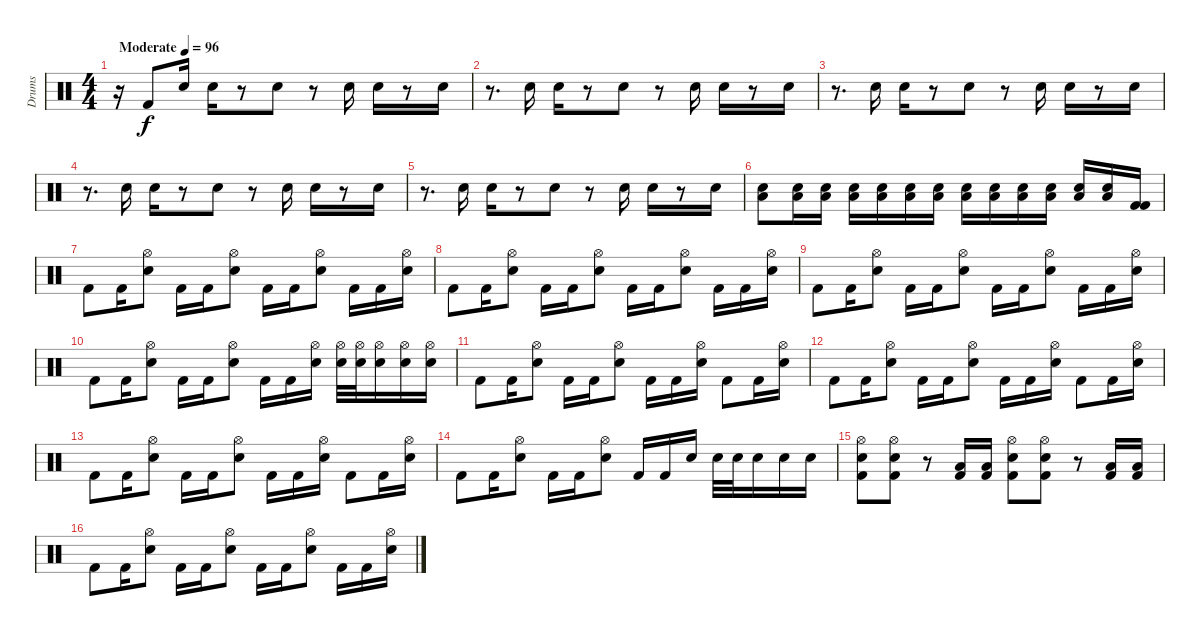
\track ("Drums" "Drums") {instrument percussion}
\staff {score}
\articulation defaults
\ts (4 4)
\tempo (96 "Moderate")
\clef neutral
\ks c
r.16{dy f} "Kick (hit) 2".8 "Snare (hit) 2".16 "Snare (hit) 2".16 r.8 "Snare (hit) 2".8 r.8 "Snare (hit) 2".16 "Snare (hit) 2".16 r.8 "Snare (hit) 2".16 |
r.8{d} "Snare (hit) 2".16 "Snare (hit) 2".16 r.8 "Snare (hit) 2".8 r.8 "Snare (hit) 2".16 "Snare (hit) 2".16 r.8 "Snare (hit) 2".16 |
r.8{d} "Snare (hit) 2".16 "Snare (hit) 2".16 r.8 "Snare (hit) 2".8 r.8 "Snare (hit) 2".16 "Snare (hit) 2".16 r.8 "Snare (hit) 2".16 |
r.8{d} "Snare (hit) 2".16 "Snare (hit) 2".16 r.8 "Snare (hit) 2".8 r.8 "Snare (hit) 2".16 "Snare (hit) 2".16 r.8 "Snare (hit) 2".16 |
r.8{d} "Snare (hit) 2".16 "Snare (hit) 2".16 r.8 "Snare (hit) 2".8 r.8 "Snare (hit) 2".16 "Snare (hit) 2".16 r.8 "Snare (hit) 2".16 |
("Low Tom (hit)" "Snare (hit) 2").8 ("Low Tom (hit)" "Snare (hit) 2").16 ("Low Tom (hit)" "Snare (hit) 2").16 ("Low Tom (hit)" "Snare (hit) 2").16 ("Low Tom (hit)" "Snare (hit) 2").16 ("Low Tom (hit)" "Snare (hit) 2").16 ("Low Tom (hit)" "Snare (hit) 2").16 ("Low Tom (hit)" "Snare (hit) 2").16 ("Low Tom (hit)" "Snare (hit) 2").16 ("Low Tom (hit)" "Snare (hit) 2").16 ("Low Tom (hit)" "Snare (hit) 2").16 ("Low Tom (hit)" "Snare (hit) 2").16 ("Low Tom (hit)" "Snare (hit) 2").16 ("Kick (hit) 2" "Kick (hit) 2").16 |
"Kick (hit) 2".8 "Kick (hit) 2".16 ("Snare (hit) 2" "Hi-Hat (open)").8 "Kick (hit) 2".16 "Kick (hit) 2".16 ("Snare (hit) 2" "Hi-Hat (open)").8 "Kick (hit) 2".16 "Kick (hit) 2".16 ("Snare (hit) 2" "Hi-Hat (open)").8 "Kick (hit) 2".16 "Kick (hit) 2".16 ("Snare (hit) 2" "Hi-Hat (open)").16 |
"Kick (hit) 2".8 "Kick (hit) 2".16 ("Snare (hit) 2" "Hi-Hat (open)").8 "Kick (hit) 2".16 "Kick (hit) 2".16 ("Snare (hit) 2" "Hi-Hat (open)").8 "Kick (hit) 2".16 "Kick (hit) 2".16 ("Snare (hit) 2" "Hi-Hat (open)").8 "Kick (hit) 2".16 "Kick (hit) 2".16 ("Snare (hit) 2" "Hi-Hat (open)").16 |
"Kick (hit) 2".8 "Kick (hit) 2".16 ("Snare (hit) 2" "Hi-Hat (open)").8 "Kick (hit) 2".16 "Kick (hit) 2".16 ("Snare (hit) 2" "Hi-Hat (open)").8 "Kick (hit) 2".16 "Kick (hit) 2".16 ("Snare (hit) 2" "Hi-Hat (open)").8 "Kick (hit) 2".16 "Kick (hit) 2".16 ("Snare (hit) 2" "Hi-Hat (open)").16 |
"Kick (hit) 2".8 "Kick (hit) 2".16 ("Snare (hit) 2" "Hi-Hat (open)").8 "Kick (hit) 2".16 "Kick (hit) 2".16 ("Snare (hit) 2" "Hi-Hat (open)").8 "Kick (hit) 2".16 "Kick (hit) 2".16 ("Snare (hit) 2" "Hi-Hat (open)").16 ("Snare (hit) 2" "Hi-Hat (open)").32 ("Snare (hit) 2" "Hi-Hat (open)").32 ("Snare (hit) 2" "Hi-Hat (open)").16 ("Snare (hit) 2" "Hi-Hat (open)").16 ("Snare (hit) 2" "Hi-Hat (open)").16 |
"Kick (hit) 2".8 "Kick (hit) 2".16 ("Snare (hit) 2" "Hi-Hat (open)").8 "Kick (hit) 2".16 "Kick (hit) 2".16 ("Snare (hit) 2" "Hi-Hat (open)").8 "Kick (hit) 2".16 "Kick (hit) 2".16 ("Snare (hit) 2" "Hi-Hat (open)").16 "Kick (hit) 2".8 "Kick (hit) 2".16 ("Snare (hit) 2" "Hi-Hat (open)").16 |
"Kick (hit) 2".8 "Kick (hit) 2".16 ("Snare (hit) 2" "Hi-Hat (open)").8 "Kick (hit) 2".16 "Kick (hit) 2".16 ("Snare (hit) 2" "Hi-Hat (open)").8 "Kick (hit) 2".16 "Kick (hit) 2".16 ("Snare (hit) 2" "Hi-Hat (open)").16 "Kick (hit) 2".8 "Kick (hit) 2".16 ("Snare (hit) 2" "Hi-Hat (open)").16 |
"Kick (hit) 2".8 "Kick (hit) 2".16 ("Snare (hit) 2" "Hi-Hat (open)").8 "Kick (hit) 2".16 "Kick (hit) 2".16 ("Snare (hit) 2" "Hi-Hat (open)").8 "Kick (hit) 2".16 "Kick (hit) 2".16 ("Snare (hit) 2" "Hi-Hat (open)").16 "Kick (hit) 2".8 "Kick (hit) 2".16 ("Snare (hit) 2" "Hi-Hat (open)").16 |
"Kick (hit) 2".8 "Kick (hit) 2".16 ("Snare (hit) 2" "Hi-Hat (open)").8 "Kick (hit) 2".16 "Kick (hit) 2".16 ("Snare (hit) 2" "Hi-Hat (open)").8 "Kick (hit) 2".16 "Kick (hit) 2".16 "Snare (hit) 2".16 "Snare (hit) 2".32 "Snare (hit) 2".32 "Snare (hit) 2".16 "Snare (hit) 2".16 "Snare (hit) 2".16 |
("Hi-Hat (open)" "Snare (hit) 2" "Kick (hit) 2").8 ("Hi-Hat (open)" "Snare (hit) 2" "Kick (hit) 2").8 r.8 ("Kick (hit) 2" "Low Tom (hit)").16 ("Kick (hit) 2" "Low Tom (hit)").16 ("Hi-Hat (open)" "Snare (hit) 2" "Kick (hit) 2").8 ("Hi-Hat (open)" "Snare (hit) 2" "Kick (hit) 2").8 r.8 ("Kick (hit) 2" "Low Tom (hit)").16 ("Kick (hit) 2" "Low Tom (hit)").16 |
"Kick (hit) 2".8 "Kick (hit) 2".16 ("Snare (hit) 2" "Hi-Hat (open)").8 "Kick (hit) 2".16 "Kick (hit) 2".16 ("Snare (hit) 2" "Hi-Hat (open)").8 "Kick (hit) 2".16 "Kick (hit) 2".16 ("Snare (hit) 2" "Hi-Hat (open)").8 "Kick (hit) 2".16 "Kick (hit) 2".16 ("Snare (hit) 2" "Hi-Hat (open)").16
